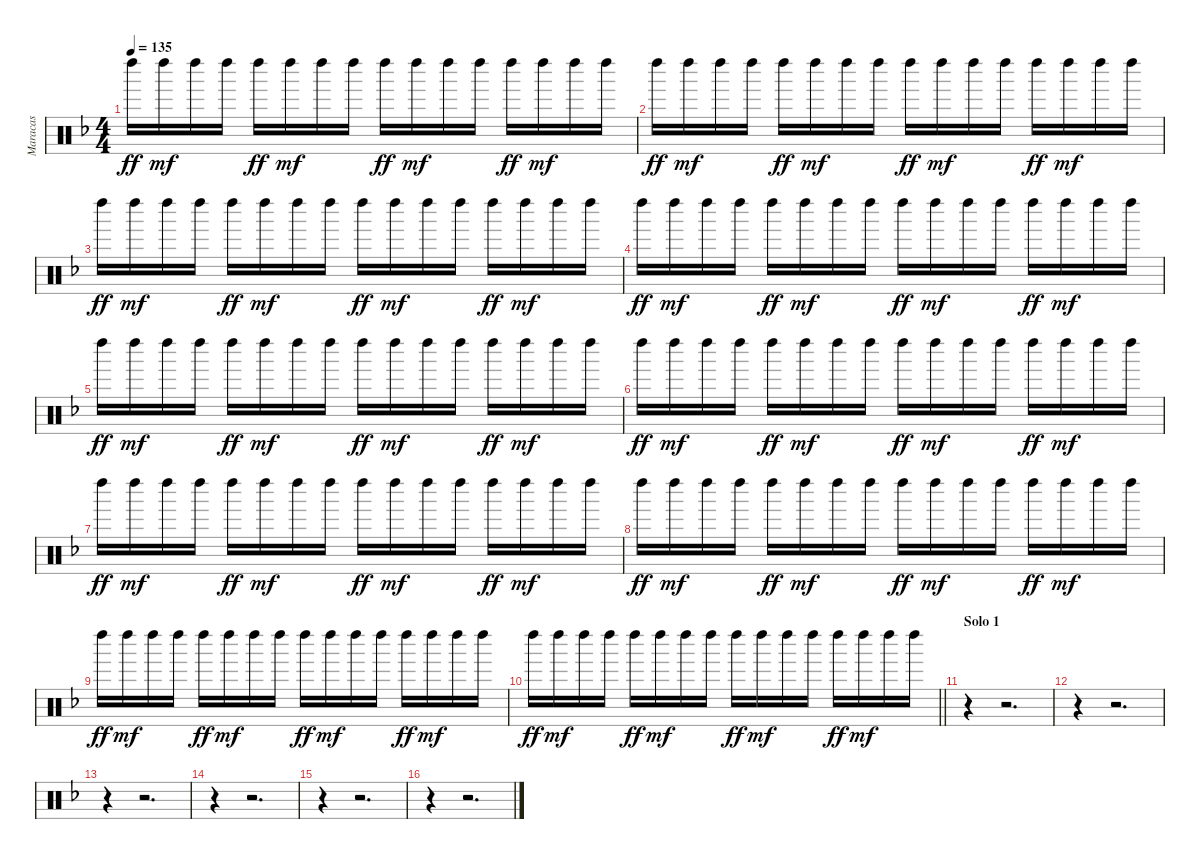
\track ("Maracas" "Maracas") {instrument percussion}
\staff {score}
\articulation defaults
\ts (4 4)
\tempo 135
\clef neutral
\ks f "Left Maraca (hit)".16{dy ff} "Left Maraca (hit)".16{dy mf} "Left Maraca (hit)".16 "Left Maraca (hit)".16 "Left Maraca (hit)".16{dy ff} "Left Maraca (hit)".16{dy mf} "Left Maraca (hit)".16 "Left Maraca (hit)".16 "Left Maraca (hit)".16{dy ff} "Left Maraca (hit)".16{dy mf} "Left Maraca (hit)".16 "Left Maraca (hit)".16 "Left Maraca (hit)".16{dy ff} "Left Maraca (hit)".16{dy mf} "Left Maraca (hit)".16 "Left Maraca (hit)".16
|
"Left Maraca (hit)".16{dy ff} "Left Maraca (hit)".16{dy mf} "Left Maraca (hit)".16 "Left Maraca (hit)".16 "Left Maraca (hit)".16{dy ff} "Left Maraca (hit)".16{dy mf} "Left Maraca (hit)".16 "Left Maraca (hit)".16 "Left Maraca (hit)".16{dy ff} "Left Maraca (hit)".16{dy mf} "Left Maraca (hit)".16 "Left Maraca (hit)".16 "Left Maraca (hit)".16{dy ff} "Left Maraca (hit)".16{dy mf} "Left Maraca (hit)".16 "Left Maraca (hit)".16 |
"Left Maraca (hit)".16{dy ff} "Left Maraca (hit)".16{dy mf} "Left Maraca (hit)".16 "Left Maraca (hit)".16 "Left Maraca (hit)".16{dy ff} "Left Maraca (hit)".16{dy mf} "Left Maraca (hit)".16 "Left Maraca (hit)".16 "Left Maraca (hit)".16{dy ff} "Left Maraca (hit)".16{dy mf} "Left Maraca (hit)".16 "Left Maraca (hit)".16 "Left Maraca (hit)".16{dy ff} "Left Maraca (hit)".16{dy mf} "Left Maraca (hit)".16 "Left Maraca (hit)".16 |
"Left Maraca (hit)".16{dy ff} "Left Maraca (hit)".16{dy mf} "Left Maraca (hit)".16 "Left Maraca (hit)".16 "Left Maraca (hit)".16{dy ff} "Left Maraca (hit)".16{dy mf} "Left Maraca (hit)".16 "Left Maraca (hit)".16 "Left Maraca (hit)".16{dy ff} "Left Maraca (hit)".16{dy mf} "Left Maraca (hit)".16 "Left Maraca (hit)".16 "Left Maraca (hit)".16{dy ff} "Left Maraca (hit)".16{dy mf} "Left Maraca (hit)".16 "Left Maraca (hit)".16 |
"Left Maraca (hit)".16{dy ff} "Left Maraca (hit)".16{dy mf} "Left Maraca (hit)".16 "Left Maraca (hit)".16 "Left Maraca (hit)".16{dy ff} "Left Maraca (hit)".16{dy mf} "Left Maraca (hit)".16 "Left Maraca (hit)".16 "Left Maraca (hit)".16{dy ff} "Left Maraca (hit)".16{dy mf} "Left Maraca (hit)".16 "Left Maraca (hit)".16 "Left Maraca (hit)".16{dy ff} "Left Maraca (hit)".16{dy mf} "Left Maraca (hit)".16 "Left Maraca (hit)".16 |
"Left Maraca (hit)".16{dy ff} "Left Maraca (hit)".16{dy mf} "Left Maraca (hit)".16 "Left Maraca (hit)".16 "Left Maraca (hit)".16{dy ff} "Left Maraca (hit)".16{dy mf} "Left Maraca (hit)".16 "Left Maraca (hit)".16 "Left Maraca (hit)".16{dy ff} "Left Maraca (hit)".16{dy mf} "Left Maraca (hit)".16 "Left Maraca (hit)".16 "Left Maraca (hit)".16{dy ff} "Left Maraca (hit)".16{dy mf} "Left Maraca (hit)".16 "Left Maraca (hit)".16 |
"Left Maraca (hit)".16{dy ff} "Left Maraca (hit)".16{dy mf} "Left Maraca (hit)".16 "Left Maraca (hit)".16 "Left Maraca (hit)".16{dy ff} "Left Maraca (hit)".16{dy mf} "Left Maraca (hit)".16 "Left Maraca (hit)".16 "Left Maraca (hit)".16{dy ff} "Left Maraca (hit)".16{dy mf} "Left Maraca (hit)".16 "Left Maraca (hit)".16 "Left Maraca (hit)".16{dy ff} "Left Maraca (hit)".16{dy mf} "Left Maraca (hit)".16 "Left Maraca (hit)".16 |
"Left Maraca (hit)".16{dy ff} "Left Maraca (hit)".16{dy mf} "Left Maraca (hit)".16 "Left Maraca (hit)".16 "Left Maraca (hit)".16{dy ff} "Left Maraca (hit)".16{dy mf} "Left Maraca (hit)".16 "Left Maraca (hit)".16 "Left Maraca (hit)".16{dy ff} "Left Maraca (hit)".16{dy mf} "Left Maraca (hit)".16 "Left Maraca (hit)".16 "Left Maraca (hit)".16{dy ff} "Left Maraca (hit)".16{dy mf} "Left Maraca (hit)".16 "Left Maraca (hit)".16 |
"Left Maraca (hit)".16{dy ff} "Left Maraca (hit)".16{dy mf} "Left Maraca (hit)".16 "Left Maraca (hit)".16 "Left Maraca (hit)".16{dy ff} "Left Maraca (hit)".16{dy mf} "Left Maraca (hit)".16 "Left Maraca (hit)".16 "Left Maraca (hit)".16{dy ff} "Left Maraca (hit)".16{dy mf} "Left Maraca (hit)".16 "Left Maraca (hit)".16 "Left Maraca (hit)".16{dy ff} "Left Maraca (hit)".16{dy mf} "Left Maraca (hit)".16 "Left Maraca (hit)".16 |
\barLineRight lightlight "Left Maraca (hit)".16{dy ff} "Left Maraca (hit)".16{dy mf} "Left Maraca (hit)".16 "Left Maraca (hit)".16 "Left Maraca (hit)".16{dy ff} "Left Maraca (hit)".16{dy mf} "Left Maraca (hit)".16 "Left Maraca (hit)".16 "Left Maraca (hit)".16{dy ff} "Left Maraca (hit)".16{dy mf} "Left Maraca (hit)".16 "Left Maraca (hit)".16 "Left Maraca (hit)".16{dy ff} "Left Maraca (hit)".16{dy mf} "Left Maraca (hit)".16 "Left Maraca (hit)".16
|
\section ("" "Solo 1")
r.4 r.2{d} |
r.4 r.2{d} |
r.4 r.2{d} |
r.4 r.2{d} |
r.4 r.2{d} |
r.4 r.2{d}
